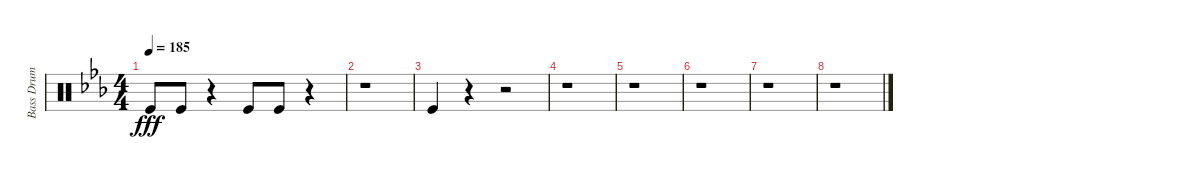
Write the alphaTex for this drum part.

\track ("Bass Drum" "Bass Drum") {instrument percussion}
\staff {score}
\articulation defaults
\ts (4 4)
\tempo 185
\clef neutral
\ks eb "Kick (hit)".8{dy fff} "Kick (hit)".8
r.4 "Kick (hit)".8 "Kick (hit)".8 r.4 |
r.1 |
"Kick (hit)".4 r.4 r.2 |
r.1 |
r.1 |
r.1 |
r.1 |
r.1
